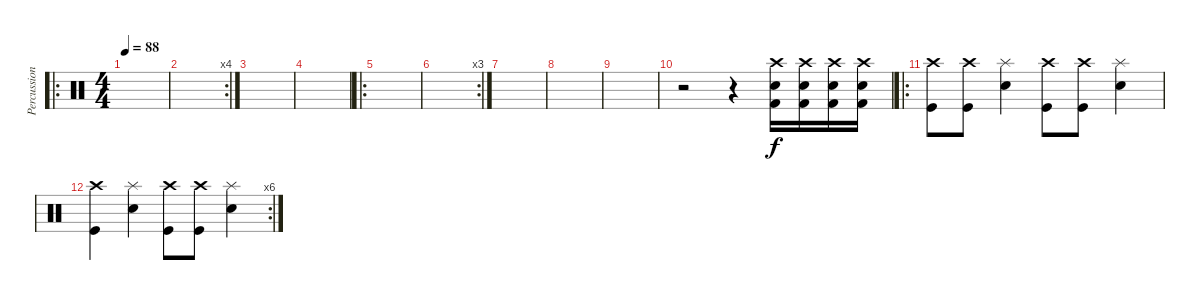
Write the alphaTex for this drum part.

\track ("Percussions" "Percussion") {instrument percussion}
\staff {score}
\articulation defaults
\ro
\ts (4 4)
\tempo 88
\clef neutral
\ks c
|
\rc 4
|
|
|
\ro
|
\rc 3
|
|
|
|
r.2 r.4 ("Kick (hit) 2" "Snare (hit) 2" "Crash high (hit)").16 ("Kick (hit) 2" "Snare (hit) 2" "Crash high (hit)").16 ("Kick (hit) 2" "Snare (hit) 2" "Crash high (hit)").16 ("Kick (hit) 2" "Snare (hit) 2" "Crash high (hit)").16 |
\ro
("Kick (hit)" "Crash high (hit)").8 ("Kick (hit)" "Crash high (hit)").8 ("Snare (hit) 2" "Splash (hit)").4 ("Kick (hit)" "Crash high (hit)").8 ("Kick (hit)" "Crash high (hit)").8 ("Snare (hit) 2" "Splash (hit)").4 |
\rc 6
("Kick (hit)" "Crash high (hit)").4 ("Snare (hit) 2" "Splash (hit)").4 ("Kick (hit)" "Crash high (hit)").8 ("Kick (hit)" "Crash high (hit)").8 ("Electric Snare (hit)" "Splash (hit)").4
